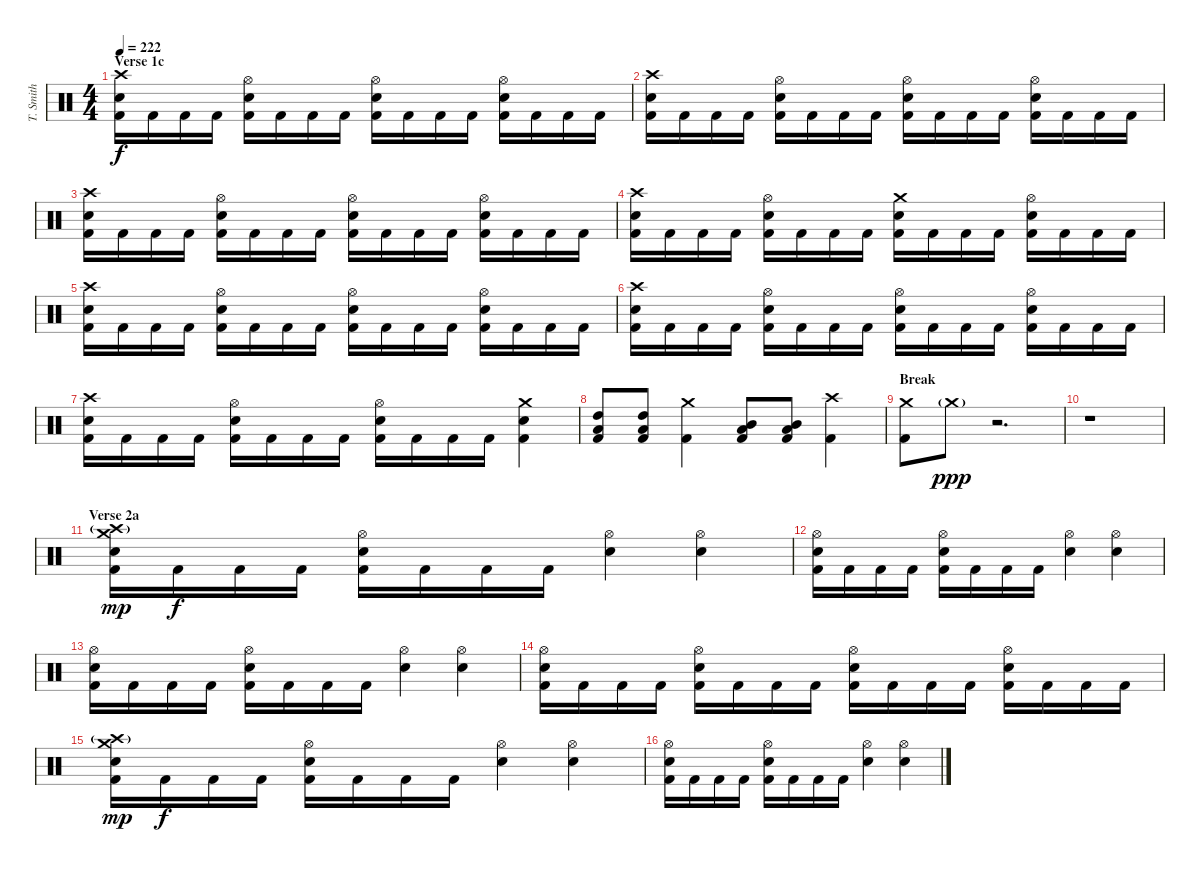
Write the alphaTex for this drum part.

\track ("T. Smith" "T. Smith") {instrument percussion}
\staff {score}
\articulation defaults
\ts (4 4)
\section ("" "Verse 1c")
\tempo 222
\clef neutral
\ks c
("Crash high (hit)" "Electric Snare (hit)" "Kick (hit) 2").16{dy f} "Kick (hit) 2".16 "Kick (hit) 2".16 "Kick (hit) 2".16 ("Hi-Hat (open)" "Electric Snare (hit)" "Kick (hit) 2").16 "Kick (hit) 2".16 "Kick (hit) 2".16 "Kick (hit) 2".16 ("Hi-Hat (open)" "Electric Snare (hit)" "Kick (hit) 2").16 "Kick (hit) 2".16 "Kick (hit) 2".16 "Kick (hit) 2".16 ("Hi-Hat (open)" "Electric Snare (hit)" "Kick (hit) 2").16 "Kick (hit) 2".16 "Kick (hit) 2".16 "Kick (hit) 2".16 |
("Crash high (hit)" "Electric Snare (hit)" "Kick (hit) 2").16 "Kick (hit) 2".16 "Kick (hit) 2".16 "Kick (hit) 2".16 ("Hi-Hat (open)" "Electric Snare (hit)" "Kick (hit) 2").16 "Kick (hit) 2".16 "Kick (hit) 2".16 "Kick (hit) 2".16 ("Hi-Hat (open)" "Electric Snare (hit)" "Kick (hit) 2").16 "Kick (hit) 2".16 "Kick (hit) 2".16 "Kick (hit) 2".16 ("Hi-Hat (open)" "Electric Snare (hit)" "Kick (hit) 2").16 "Kick (hit) 2".16 "Kick (hit) 2".16 "Kick (hit) 2".16 |
("Crash high (hit)" "Electric Snare (hit)" "Kick (hit) 2").16 "Kick (hit) 2".16 "Kick (hit) 2".16 "Kick (hit) 2".16 ("Hi-Hat (open)" "Electric Snare (hit)" "Kick (hit) 2").16 "Kick (hit) 2".16 "Kick (hit) 2".16 "Kick (hit) 2".16 ("Hi-Hat (open)" "Electric Snare (hit)" "Kick (hit) 2").16 "Kick (hit) 2".16 "Kick (hit) 2".16 "Kick (hit) 2".16 ("Hi-Hat (open)" "Electric Snare (hit)" "Kick (hit) 2").16 "Kick (hit) 2".16 "Kick (hit) 2".16 "Kick (hit) 2".16 |
("Crash high (hit)" "Electric Snare (hit)" "Kick (hit) 2").16 "Kick (hit) 2".16 "Kick (hit) 2".16 "Kick (hit) 2".16 ("Hi-Hat (open)" "Electric Snare (hit)" "Kick (hit) 2").16 "Kick (hit) 2".16 "Kick (hit) 2".16 "Kick (hit) 2".16 ("Crash medium (hit)" "Electric Snare (hit)" "Kick (hit) 2").16 "Kick (hit) 2".16 "Kick (hit) 2".16 "Kick (hit) 2".16 ("Hi-Hat (open)" "Electric Snare (hit)" "Kick (hit) 2").16 "Kick (hit) 2".16 "Kick (hit) 2".16 "Kick (hit) 2".16 |
("Crash high (hit)" "Electric Snare (hit)" "Kick (hit) 2").16 "Kick (hit) 2".16 "Kick (hit) 2".16 "Kick (hit) 2".16 ("Hi-Hat (open)" "Electric Snare (hit)" "Kick (hit) 2").16 "Kick (hit) 2".16 "Kick (hit) 2".16 "Kick (hit) 2".16 ("Hi-Hat (open)" "Electric Snare (hit)" "Kick (hit) 2").16 "Kick (hit) 2".16 "Kick (hit) 2".16 "Kick (hit) 2".16 ("Hi-Hat (open)" "Electric Snare (hit)" "Kick (hit) 2").16 "Kick (hit) 2".16 "Kick (hit) 2".16 "Kick (hit) 2".16 |
("Crash high (hit)" "Electric Snare (hit)" "Kick (hit) 2").16 "Kick (hit) 2".16 "Kick (hit) 2".16 "Kick (hit) 2".16 ("Hi-Hat (open)" "Electric Snare (hit)" "Kick (hit) 2").16 "Kick (hit) 2".16 "Kick (hit) 2".16 "Kick (hit) 2".16 ("Hi-Hat (open)" "Electric Snare (hit)" "Kick (hit) 2").16 "Kick (hit) 2".16 "Kick (hit) 2".16 "Kick (hit) 2".16 ("Hi-Hat (open)" "Electric Snare (hit)" "Kick (hit) 2").16 "Kick (hit) 2".16 "Kick (hit) 2".16 "Kick (hit) 2".16 |
("Crash high (hit)" "Electric Snare (hit)" "Kick (hit) 2").16 "Kick (hit) 2".16 "Kick (hit) 2".16 "Kick (hit) 2".16 ("Hi-Hat (open)" "Electric Snare (hit)" "Kick (hit) 2").16 "Kick (hit) 2".16 "Kick (hit) 2".16 "Kick (hit) 2".16 ("Hi-Hat (open)" "Electric Snare (hit)" "Kick (hit) 2").16 "Kick (hit) 2".16 "Kick (hit) 2".16 "Kick (hit) 2".16 ("Crash medium (hit)" "Electric Snare (hit)" "Kick (hit) 2").4 |
("High Tom (hit)" "Low Tom (hit)" "Kick (hit) 2").8 ("High Tom (hit)" "Low Tom (hit)" "Kick (hit) 2").8 ("Crash medium (hit)" "Kick (hit) 2").4 ("Mid Tom (hit)" "Low Tom (hit)" "Kick (hit) 2").8 ("Mid Tom (hit)" "Low Tom (hit)" "Kick (hit) 2").8 ("Crash high (hit)" "Kick (hit) 2").4 |
\section ("" "Break")
("Crash medium (hit)" "Kick (hit) 2").8 "Crash medium (hit)"{g}.8{dy ppp} r.2{d} |
r.1 |
\section ("" "Verse 2a")
("Crash medium (hit)" "Crash high (hit)"{g} "Electric Snare (hit)" "Kick (hit) 2").16{dy mp} "Kick (hit) 2".16{dy f} "Kick (hit) 2".16 "Kick (hit) 2".16 ("Hi-Hat (open)" "Electric Snare (hit)" "Kick (hit) 2").16 "Kick (hit) 2".16 "Kick (hit) 2".16 "Kick (hit) 2".16 ("Hi-Hat (open)" "Electric Snare (hit)").4 ("Hi-Hat (open)" "Electric Snare (hit)").4 |
("Hi-Hat (open)" "Electric Snare (hit)" "Kick (hit) 2").16 "Kick (hit) 2".16 "Kick (hit) 2".16 "Kick (hit) 2".16 ("Hi-Hat (open)" "Electric Snare (hit)" "Kick (hit) 2").16 "Kick (hit) 2".16 "Kick (hit) 2".16 "Kick (hit) 2".16 ("Hi-Hat (open)" "Electric Snare (hit)").4 ("Hi-Hat (open)" "Electric Snare (hit)").4 |
("Hi-Hat (open)" "Electric Snare (hit)" "Kick (hit) 2").16 "Kick (hit) 2".16 "Kick (hit) 2".16 "Kick (hit) 2".16 ("Hi-Hat (open)" "Electric Snare (hit)" "Kick (hit) 2").16 "Kick (hit) 2".16 "Kick (hit) 2".16 "Kick (hit) 2".16 ("Hi-Hat (open)" "Electric Snare (hit)").4 ("Hi-Hat (open)" "Electric Snare (hit)").4 |
("Hi-Hat (open)" "Electric Snare (hit)" "Kick (hit) 2").16 "Kick (hit) 2".16 "Kick (hit) 2".16 "Kick (hit) 2".16 ("Hi-Hat (open)" "Electric Snare (hit)" "Kick (hit) 2").16 "Kick (hit) 2".16 "Kick (hit) 2".16 "Kick (hit) 2".16 ("Hi-Hat (open)" "Electric Snare (hit)" "Kick (hit) 2").16 "Kick (hit) 2".16 "Kick (hit) 2".16 "Kick (hit) 2".16 ("Hi-Hat (open)" "Electric Snare (hit)" "Kick (hit) 2").16 "Kick (hit) 2".16 "Kick (hit) 2".16 "Kick (hit) 2".16 |
("Crash medium (hit)" "Crash high (hit)"{g} "Electric Snare (hit)" "Kick (hit) 2").16{dy mp} "Kick (hit) 2".16{dy f} "Kick (hit) 2".16 "Kick (hit) 2".16 ("Hi-Hat (open)" "Electric Snare (hit)" "Kick (hit) 2").16 "Kick (hit) 2".16 "Kick (hit) 2".16 "Kick (hit) 2".16 ("Hi-Hat (open)" "Electric Snare (hit)").4 ("Hi-Hat (open)" "Electric Snare (hit)").4 |
("Hi-Hat (open)" "Electric Snare (hit)" "Kick (hit) 2").16 "Kick (hit) 2".16 "Kick (hit) 2".16 "Kick (hit) 2".16 ("Hi-Hat (open)" "Electric Snare (hit)" "Kick (hit) 2").16 "Kick (hit) 2".16 "Kick (hit) 2".16 "Kick (hit) 2".16 ("Hi-Hat (open)" "Electric Snare (hit)").4 ("Hi-Hat (open)" "Electric Snare (hit)").4
